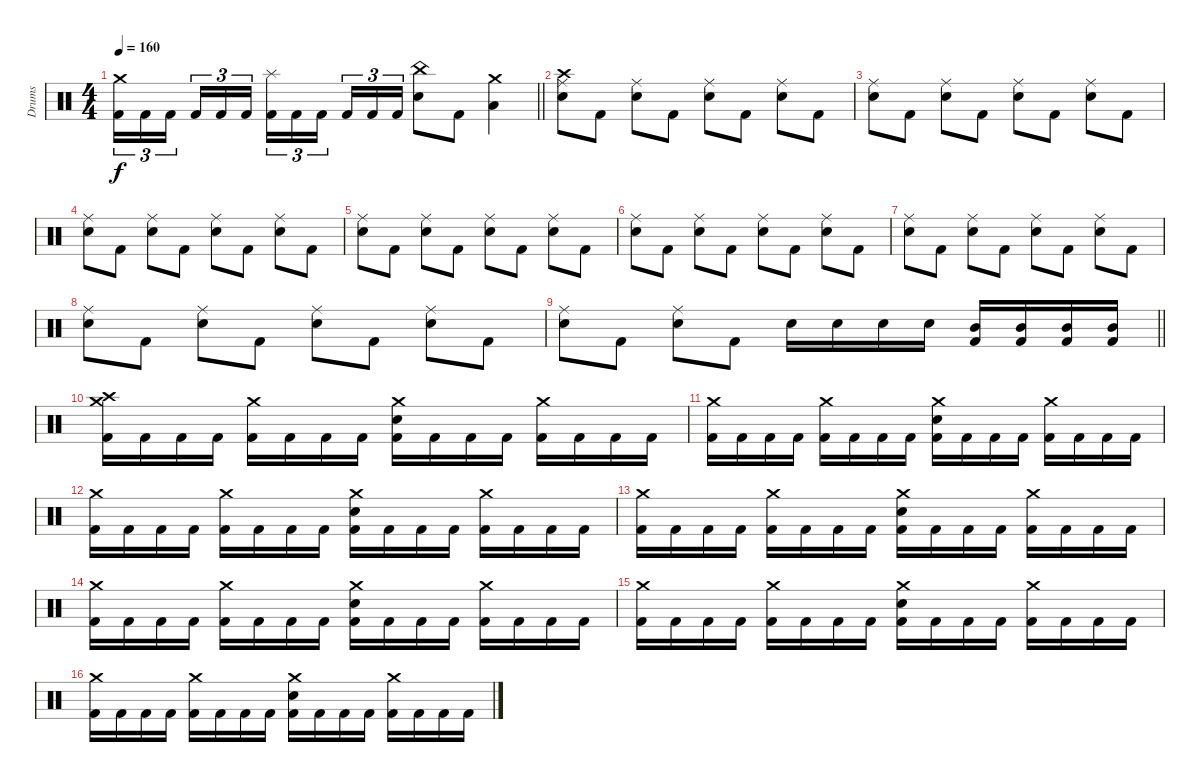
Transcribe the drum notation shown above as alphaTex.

\track ("Drums" "Drums") {instrument percussion}
\staff {score}
\articulation defaults
\ts (4 4)
\tempo 160
\clef neutral
\barLineRight lightlight
\ks c
("Crash medium (hit)" "Kick (hit) 2").16{tu (3 2) dy f} "Kick (hit) 2".16{tu (3 2)} "Kick (hit) 2".16{tu (3 2) beam splitsecondary} "Kick (hit) 2".16{tu (3 2)} "Kick (hit) 2".16{tu (3 2)} "Kick (hit) 2".16{tu (3 2)} ("Splash (hit)" "Kick (hit) 2").16{tu (3 2)} "Kick (hit) 2".16{tu (3 2)} "Kick (hit) 2".16{tu (3 2) beam splitsecondary} "Kick (hit) 2".16{tu (3 2)} "Kick (hit) 2".16{tu (3 2)} "Kick (hit) 2".16{tu (3 2)} ("China (hit)" "Snare (hit) 2").8 "Kick (hit) 2".8 ("Crash medium (hit)" "Low Tom (hit)").4 |
\section ("" "")
("Ride (middle)" "Crash high (hit)" "Snare (hit) 2").8 "Kick (hit) 2".8 ("Ride (middle)" "Snare (hit) 2").8 "Kick (hit) 2".8 ("Ride (middle)" "Snare (hit) 2").8 "Kick (hit) 2".8 ("Ride (middle)" "Snare (hit) 2").8 "Kick (hit) 2".8 |
("Ride (middle)" "Snare (hit) 2").8 "Kick (hit) 2".8 ("Ride (middle)" "Snare (hit) 2").8 "Kick (hit) 2".8 ("Ride (middle)" "Snare (hit) 2").8 "Kick (hit) 2".8 ("Ride (middle)" "Snare (hit) 2").8 "Kick (hit) 2".8 |
("Ride (middle)" "Snare (hit) 2").8 "Kick (hit) 2".8 ("Ride (middle)" "Snare (hit) 2").8 "Kick (hit) 2".8 ("Ride (middle)" "Snare (hit) 2").8 "Kick (hit) 2".8 ("Ride (middle)" "Snare (hit) 2").8 "Kick (hit) 2".8 |
("Ride (middle)" "Snare (hit) 2").8 "Kick (hit) 2".8 ("Ride (middle)" "Snare (hit) 2").8 "Kick (hit) 2".8 ("Ride (middle)" "Snare (hit) 2").8 "Kick (hit) 2".8 ("Ride (middle)" "Snare (hit) 2").8 "Kick (hit) 2".8 |
("Ride (middle)" "Snare (hit) 2").8 "Kick (hit) 2".8 ("Ride (middle)" "Snare (hit) 2").8 "Kick (hit) 2".8 ("Ride (middle)" "Snare (hit) 2").8 "Kick (hit) 2".8 ("Ride (middle)" "Snare (hit) 2").8 "Kick (hit) 2".8 |
("Ride (middle)" "Snare (hit) 2").8 "Kick (hit) 2".8 ("Ride (middle)" "Snare (hit) 2").8 "Kick (hit) 2".8 ("Ride (middle)" "Snare (hit) 2").8 "Kick (hit) 2".8 ("Ride (middle)" "Snare (hit) 2").8 "Kick (hit) 2".8 |
("Ride (middle)" "Snare (hit) 2").8 "Kick (hit) 2".8 ("Ride (middle)" "Snare (hit) 2").8 "Kick (hit) 2".8 ("Ride (middle)" "Snare (hit) 2").8 "Kick (hit) 2".8 ("Ride (middle)" "Snare (hit) 2").8 "Kick (hit) 2".8 |
\barLineRight lightlight
("Ride (middle)" "Snare (hit) 2").8 "Kick (hit) 2".8 ("Ride (middle)" "Snare (hit) 2").8 "Kick (hit) 2".8 "Snare (hit) 2".16 "Snare (hit) 2".16 "Snare (hit) 2".16 "Snare (hit) 2".16 ("Mid Tom (hit)" "Kick (hit) 2").16 ("Mid Tom (hit)" "Kick (hit) 2").16 ("Mid Tom (hit)" "Kick (hit) 2").16 ("Mid Tom (hit)" "Kick (hit) 2").16 |
\section ("" "")
("Crash medium (hit)" "Crash high (hit)" "Kick (hit) 2").16 "Kick (hit) 2".16 "Kick (hit) 2".16 "Kick (hit) 2".16 ("Crash medium (hit)" "Kick (hit) 2").16 "Kick (hit) 2".16 "Kick (hit) 2".16 "Kick (hit) 2".16 ("Crash medium (hit)" "Snare (hit) 2" "Kick (hit) 2").16 "Kick (hit) 2".16 "Kick (hit) 2".16 "Kick (hit) 2".16 ("Crash medium (hit)" "Kick (hit) 2").16 "Kick (hit) 2".16 "Kick (hit) 2".16 "Kick (hit) 2".16 |
("Crash medium (hit)" "Kick (hit) 2").16 "Kick (hit) 2".16 "Kick (hit) 2".16 "Kick (hit) 2".16 ("Crash medium (hit)" "Kick (hit) 2").16 "Kick (hit) 2".16 "Kick (hit) 2".16 "Kick (hit) 2".16 ("Crash medium (hit)" "Snare (hit) 2" "Kick (hit) 2").16 "Kick (hit) 2".16 "Kick (hit) 2".16 "Kick (hit) 2".16 ("Crash medium (hit)" "Kick (hit) 2").16 "Kick (hit) 2".16 "Kick (hit) 2".16 "Kick (hit) 2".16 |
("Crash medium (hit)" "Kick (hit) 2").16 "Kick (hit) 2".16 "Kick (hit) 2".16 "Kick (hit) 2".16 ("Crash medium (hit)" "Kick (hit) 2").16 "Kick (hit) 2".16 "Kick (hit) 2".16 "Kick (hit) 2".16 ("Crash medium (hit)" "Snare (hit) 2" "Kick (hit) 2").16 "Kick (hit) 2".16 "Kick (hit) 2".16 "Kick (hit) 2".16 ("Crash medium (hit)" "Kick (hit) 2").16 "Kick (hit) 2".16 "Kick (hit) 2".16 "Kick (hit) 2".16 |
("Crash medium (hit)" "Kick (hit) 2").16 "Kick (hit) 2".16 "Kick (hit) 2".16 "Kick (hit) 2".16 ("Crash medium (hit)" "Kick (hit) 2").16 "Kick (hit) 2".16 "Kick (hit) 2".16 "Kick (hit) 2".16 ("Crash medium (hit)" "Snare (hit) 2" "Kick (hit) 2").16 "Kick (hit) 2".16 "Kick (hit) 2".16 "Kick (hit) 2".16 ("Crash medium (hit)" "Kick (hit) 2").16 "Kick (hit) 2".16 "Kick (hit) 2".16 "Kick (hit) 2".16 |
("Crash medium (hit)" "Kick (hit) 2").16 "Kick (hit) 2".16 "Kick (hit) 2".16 "Kick (hit) 2".16 ("Crash medium (hit)" "Kick (hit) 2").16 "Kick (hit) 2".16 "Kick (hit) 2".16 "Kick (hit) 2".16 ("Crash medium (hit)" "Snare (hit) 2" "Kick (hit) 2").16 "Kick (hit) 2".16 "Kick (hit) 2".16 "Kick (hit) 2".16 ("Crash medium (hit)" "Kick (hit) 2").16 "Kick (hit) 2".16 "Kick (hit) 2".16 "Kick (hit) 2".16 |
("Crash medium (hit)" "Kick (hit) 2").16 "Kick (hit) 2".16 "Kick (hit) 2".16 "Kick (hit) 2".16 ("Crash medium (hit)" "Kick (hit) 2").16 "Kick (hit) 2".16 "Kick (hit) 2".16 "Kick (hit) 2".16 ("Crash medium (hit)" "Snare (hit) 2" "Kick (hit) 2").16 "Kick (hit) 2".16 "Kick (hit) 2".16 "Kick (hit) 2".16 ("Crash medium (hit)" "Kick (hit) 2").16 "Kick (hit) 2".16 "Kick (hit) 2".16 "Kick (hit) 2".16 |
("Crash medium (hit)" "Kick (hit) 2").16 "Kick (hit) 2".16 "Kick (hit) 2".16 "Kick (hit) 2".16 ("Crash medium (hit)" "Kick (hit) 2").16 "Kick (hit) 2".16 "Kick (hit) 2".16 "Kick (hit) 2".16 ("Crash medium (hit)" "Snare (hit) 2" "Kick (hit) 2").16 "Kick (hit) 2".16 "Kick (hit) 2".16 "Kick (hit) 2".16 ("Crash medium (hit)" "Kick (hit) 2").16 "Kick (hit) 2".16 "Kick (hit) 2".16 "Kick (hit) 2".16
